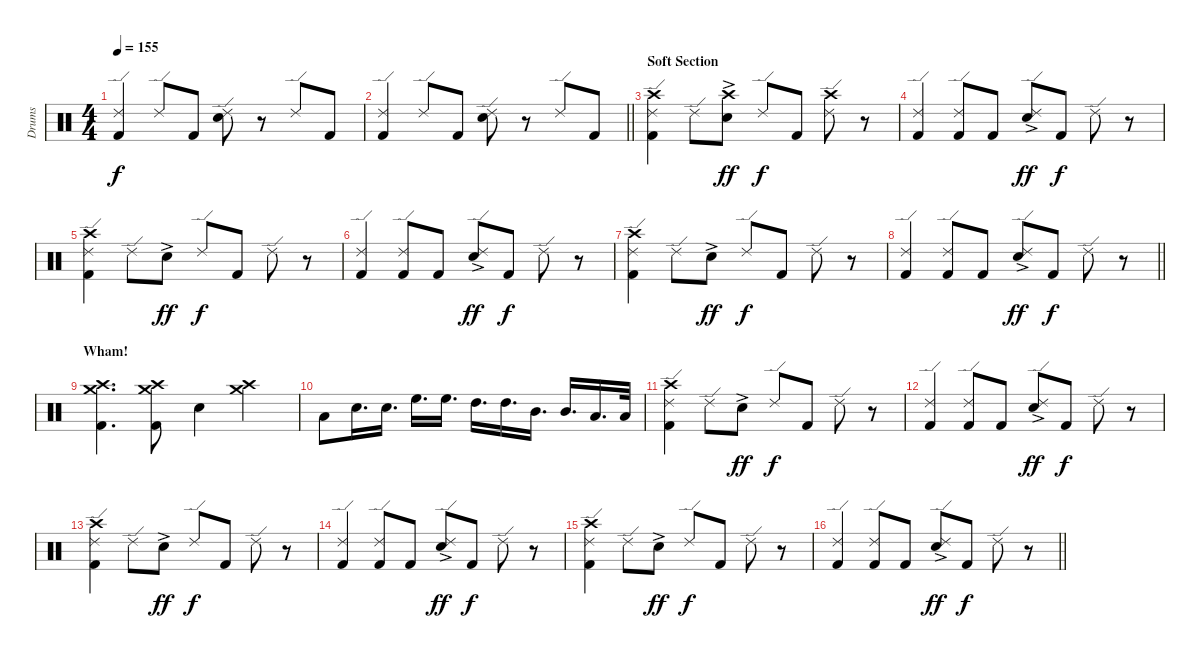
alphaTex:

\track ("Drums" "Drums") {instrument percussion}
\staff {score}
\articulation defaults
\ts (4 4)
\tempo 155
\clef neutral
\ks c
("Ride (edge) 2" "Kick (hit) 2").4{dy f} "Ride (edge) 2".8 "Kick (hit) 2".8 ("Ride (edge) 2" "Electric Snare (hit)").8 r.8 "Ride (edge) 2".8 "Kick (hit) 2".8 |
\barLineRight lightlight
("Ride (edge) 2" "Kick (hit) 2").4 "Ride (edge) 2".8 "Kick (hit) 2".8 ("Ride (edge) 2" "Electric Snare (hit)").8 r.8 "Ride (edge) 2".8 "Kick (hit) 2".8 |
\section ("" "Soft Section")
("Ride (edge) 2" "Crash high (hit)" "Kick (hit) 2").4{volume 10} "Ride (edge) 2".8 ("Crash high (hit)" "Electric Snare (hit)"{ac}).8{dy ff} "Ride (edge) 2".8{dy f} "Kick (hit) 2".8 ("Ride (edge) 2" "Crash high (hit)").8 r.8 |
("Ride (edge) 2" "Kick (hit) 2").4 ("Ride (edge) 2" "Kick (hit) 2").8 "Kick (hit) 2".8 ("Ride (edge) 2" "Electric Snare (hit)"{ac}).8{dy ff} "Kick (hit) 2".8{dy f} "Ride (edge) 2".8 r.8 |
("Ride (edge) 2" "Crash high (hit)" "Kick (hit) 2").4 "Ride (edge) 2".8 "Electric Snare (hit)"{ac}.8{dy ff} "Ride (edge) 2".8{dy f} "Kick (hit) 2".8 "Ride (edge) 2".8 r.8 |
("Ride (edge) 2" "Kick (hit) 2").4 ("Ride (edge) 2" "Kick (hit) 2").8 "Kick (hit) 2".8 ("Ride (edge) 2" "Electric Snare (hit)"{ac}).8{dy ff} "Kick (hit) 2".8{dy f} "Ride (edge) 2".8 r.8 |
("Ride (edge) 2" "Crash high (hit)" "Kick (hit) 2").4 "Ride (edge) 2".8 "Electric Snare (hit)"{ac}.8{dy ff} "Ride (edge) 2".8{dy f} "Kick (hit) 2".8 "Ride (edge) 2".8 r.8 |
\barLineRight lightlight
("Ride (edge) 2" "Kick (hit) 2").4 ("Ride (edge) 2" "Kick (hit) 2").8 "Kick (hit) 2".8 ("Ride (edge) 2" "Electric Snare (hit)"{ac}).8{dy ff} "Kick (hit) 2".8{dy f} "Ride (edge) 2".8 r.8 |
\section ("" "Wham!")
("Crash high (hit)" "Crash medium (hit)" "Kick (hit) 2").4{d} ("Crash high (hit)" "Crash medium (hit)" "Kick (hit) 2").8 "Electric Snare (hit)".4 ("Crash high (hit)" "Crash medium (hit)").4 |
"Low Tom (hit)".8 "Electric Snare (hit)".16{d} "Electric Snare (hit)".16{d} "High Floor Tom (hit)".16{d} "High Floor Tom (hit)".16{d} "High Tom (hit)".16{d} "High Tom (hit)".16{d} "Mid Tom (hit)".16{d} "Mid Tom (hit)".16{d} "Low Tom (hit)".16{d} "Low Tom (hit)".32 |
("Ride (edge) 2" "Crash high (hit)" "Kick (hit) 2").4 "Ride (edge) 2".8 "Electric Snare (hit)"{ac}.8{dy ff} "Ride (edge) 2".8{dy f} "Kick (hit) 2".8 "Ride (edge) 2".8 r.8 |
("Ride (edge) 2" "Kick (hit) 2").4 ("Ride (edge) 2" "Kick (hit) 2").8 "Kick (hit) 2".8 ("Ride (edge) 2" "Electric Snare (hit)"{ac}).8{dy ff} "Kick (hit) 2".8{dy f} "Ride (edge) 2".8 r.8 |
("Ride (edge) 2" "Crash high (hit)" "Kick (hit) 2").4 "Ride (edge) 2".8 "Electric Snare (hit)"{ac}.8{dy ff} "Ride (edge) 2".8{dy f} "Kick (hit) 2".8 "Ride (edge) 2".8 r.8 |
("Ride (edge) 2" "Kick (hit) 2").4 ("Ride (edge) 2" "Kick (hit) 2").8 "Kick (hit) 2".8 ("Ride (edge) 2" "Electric Snare (hit)"{ac}).8{dy ff} "Kick (hit) 2".8{dy f} "Ride (edge) 2".8 r.8 |
("Ride (edge) 2" "Crash high (hit)" "Kick (hit) 2").4 "Ride (edge) 2".8 "Electric Snare (hit)"{ac}.8{dy ff} "Ride (edge) 2".8{dy f} "Kick (hit) 2".8 "Ride (edge) 2".8 r.8 |
\barLineRight lightlight
("Ride (edge) 2" "Kick (hit) 2").4 ("Ride (edge) 2" "Kick (hit) 2").8 "Kick (hit) 2".8 ("Ride (edge) 2" "Electric Snare (hit)"{ac}).8{dy ff} "Kick (hit) 2".8{dy f} "Ride (edge) 2".8 r.8
